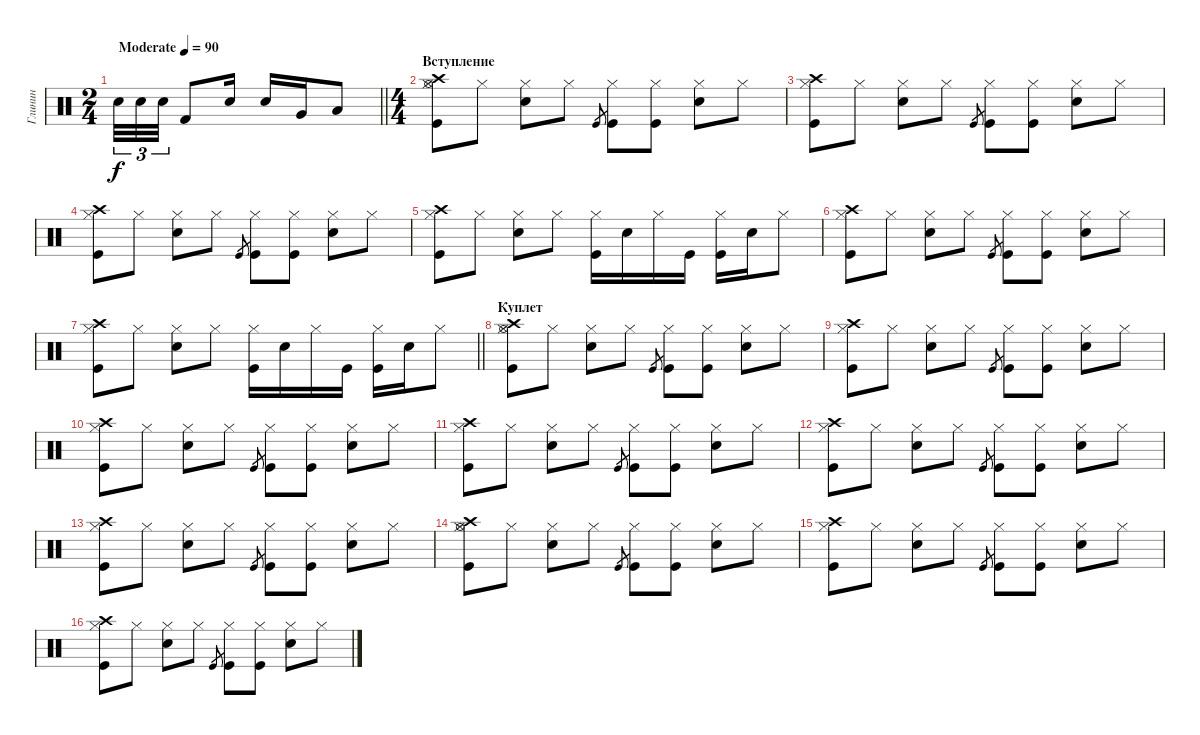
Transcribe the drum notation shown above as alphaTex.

\track ("Глинин" "Глинин") {instrument percussion}
\staff {score}
\articulation defaults
\ts (2 4)
\tempo (90 "Moderate")
\clef neutral
\barLineRight lightlight
\ks c "Snare (hit) 2".32{tu (3 2) dy f} "Snare (hit) 2".32{tu (3 2)} "Snare (hit) 2".32{tu (3 2)} "Kick (hit) 2".8 "Snare (hit) 2".16 "Snare (hit) 2".16 "Very Low Tom (hit)".16 "Low Floor Tom (hit)".8
|
\ts (4 4)
\section ("" "Вступление")
("Hi-Hat (closed)" "Crash high (hit)" "Kick (hit)" "Hi-Hat (open)").8 "Hi-Hat (closed)".8 ("Hi-Hat (closed)" "Snare (hit) 2").8 "Hi-Hat (closed)".8 "Kick (hit)".8{gr} ("Hi-Hat (closed)" "Kick (hit)").8 ("Hi-Hat (closed)" "Kick (hit)").8 ("Hi-Hat (closed)" "Snare (hit) 2").8 "Hi-Hat (closed)".8 |
("Hi-Hat (closed)" "Crash high (hit)" "Kick (hit)").8 "Hi-Hat (closed)".8 ("Hi-Hat (closed)" "Snare (hit) 2").8 "Hi-Hat (closed)".8 "Kick (hit)".8{gr} ("Hi-Hat (closed)" "Kick (hit)").8 ("Hi-Hat (closed)" "Kick (hit)").8 ("Hi-Hat (closed)" "Snare (hit) 2").8 "Hi-Hat (closed)".8 |
("Hi-Hat (closed)" "Crash high (hit)" "Kick (hit)").8 "Hi-Hat (closed)".8 ("Hi-Hat (closed)" "Snare (hit) 2").8 "Hi-Hat (closed)".8 "Kick (hit)".8{gr} ("Hi-Hat (closed)" "Kick (hit)").8 ("Hi-Hat (closed)" "Kick (hit)").8 ("Hi-Hat (closed)" "Snare (hit) 2").8 "Hi-Hat (closed)".8 |
("Hi-Hat (closed)" "Crash high (hit)" "Kick (hit)").8 "Hi-Hat (closed)".8 ("Hi-Hat (closed)" "Snare (hit) 2").8 "Hi-Hat (closed)".8 ("Hi-Hat (closed)" "Kick (hit)").16 "Snare (hit) 2".16 "Hi-Hat (closed)".16 "Kick (hit)".16 ("Hi-Hat (closed)" "Kick (hit)").16 "Snare (hit) 2".16 "Hi-Hat (closed)".8 |
("Hi-Hat (closed)" "Crash high (hit)" "Kick (hit)").8 "Hi-Hat (closed)".8 ("Hi-Hat (closed)" "Snare (hit) 2").8 "Hi-Hat (closed)".8 "Kick (hit)".8{gr} ("Hi-Hat (closed)" "Kick (hit)").8 ("Hi-Hat (closed)" "Kick (hit)").8 ("Hi-Hat (closed)" "Snare (hit) 2").8 "Hi-Hat (closed)".8 |
\barLineRight lightlight
("Hi-Hat (closed)" "Crash high (hit)" "Kick (hit)").8 "Hi-Hat (closed)".8 ("Hi-Hat (closed)" "Snare (hit) 2").8 "Hi-Hat (closed)".8 ("Hi-Hat (closed)" "Kick (hit)").16 "Snare (hit) 2".16 "Hi-Hat (closed)".16 "Kick (hit)".16 ("Hi-Hat (closed)" "Kick (hit)").16 "Snare (hit) 2".16 "Hi-Hat (closed)".8 |
\section ("" "Куплет")
("Hi-Hat (closed)" "Crash high (hit)" "Kick (hit)" "Hi-Hat (open)").8 "Hi-Hat (closed)".8 ("Hi-Hat (closed)" "Snare (hit) 2").8 "Hi-Hat (closed)".8 "Kick (hit)".8{gr} ("Hi-Hat (closed)" "Kick (hit)").8 ("Hi-Hat (closed)" "Kick (hit)").8 ("Hi-Hat (closed)" "Snare (hit) 2").8 "Hi-Hat (closed)".8 |
("Hi-Hat (closed)" "Crash high (hit)" "Kick (hit)").8 "Hi-Hat (closed)".8 ("Hi-Hat (closed)" "Snare (hit) 2").8 "Hi-Hat (closed)".8 "Kick (hit)".8{gr} ("Hi-Hat (closed)" "Kick (hit)").8 ("Hi-Hat (closed)" "Kick (hit)").8 ("Hi-Hat (closed)" "Snare (hit) 2").8 "Hi-Hat (closed)".8 |
("Hi-Hat (closed)" "Crash high (hit)" "Kick (hit)").8 "Hi-Hat (closed)".8 ("Hi-Hat (closed)" "Snare (hit) 2").8 "Hi-Hat (closed)".8 "Kick (hit)".8{gr} ("Hi-Hat (closed)" "Kick (hit)").8 ("Hi-Hat (closed)" "Kick (hit)").8 ("Hi-Hat (closed)" "Snare (hit) 2").8 "Hi-Hat (closed)".8 |
("Hi-Hat (closed)" "Crash high (hit)" "Kick (hit)").8 "Hi-Hat (closed)".8 ("Hi-Hat (closed)" "Snare (hit) 2").8 "Hi-Hat (closed)".8 "Kick (hit)".8{gr} ("Hi-Hat (closed)" "Kick (hit)").8 ("Hi-Hat (closed)" "Kick (hit)").8 ("Hi-Hat (closed)" "Snare (hit) 2").8 "Hi-Hat (closed)".8 |
("Hi-Hat (closed)" "Crash high (hit)" "Kick (hit)").8 "Hi-Hat (closed)".8 ("Hi-Hat (closed)" "Snare (hit) 2").8 "Hi-Hat (closed)".8 "Kick (hit)".8{gr} ("Hi-Hat (closed)" "Kick (hit)").8 ("Hi-Hat (closed)" "Kick (hit)").8 ("Hi-Hat (closed)" "Snare (hit) 2").8 "Hi-Hat (closed)".8 |
("Hi-Hat (closed)" "Crash high (hit)" "Kick (hit)").8 "Hi-Hat (closed)".8 ("Hi-Hat (closed)" "Snare (hit) 2").8 "Hi-Hat (closed)".8 "Kick (hit)".8{gr} ("Hi-Hat (closed)" "Kick (hit)").8 ("Hi-Hat (closed)" "Kick (hit)").8 ("Hi-Hat (closed)" "Snare (hit) 2").8 "Hi-Hat (closed)".8 |
("Hi-Hat (closed)" "Crash high (hit)" "Kick (hit)" "Hi-Hat (open)").8 "Hi-Hat (closed)".8 ("Hi-Hat (closed)" "Snare (hit) 2").8 "Hi-Hat (closed)".8 "Kick (hit)".8{gr} ("Hi-Hat (closed)" "Kick (hit)").8 ("Hi-Hat (closed)" "Kick (hit)").8 ("Hi-Hat (closed)" "Snare (hit) 2").8 "Hi-Hat (closed)".8 |
("Hi-Hat (closed)" "Crash high (hit)" "Kick (hit)").8 "Hi-Hat (closed)".8 ("Hi-Hat (closed)" "Snare (hit) 2").8 "Hi-Hat (closed)".8 "Kick (hit)".8{gr} ("Hi-Hat (closed)" "Kick (hit)").8 ("Hi-Hat (closed)" "Kick (hit)").8 ("Hi-Hat (closed)" "Snare (hit) 2").8 "Hi-Hat (closed)".8 |
("Hi-Hat (closed)" "Crash high (hit)" "Kick (hit)").8 "Hi-Hat (closed)".8 ("Hi-Hat (closed)" "Snare (hit) 2").8 "Hi-Hat (closed)".8 "Kick (hit)".8{gr} ("Hi-Hat (closed)" "Kick (hit)").8 ("Hi-Hat (closed)" "Kick (hit)").8 ("Hi-Hat (closed)" "Snare (hit) 2").8 "Hi-Hat (closed)".8
